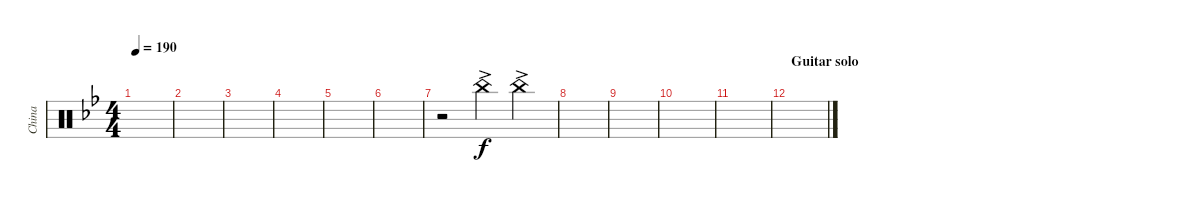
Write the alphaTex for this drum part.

\track ("China" "China") {instrument percussion}
\staff {score}
\articulation defaults
\ts (4 4)
\tempo 190
\clef neutral
\ks bb
|
|
|
|
|
|
r.2 "China (hit)"{ac}.4 "China (hit)"{ac}.4 |
|
|
|
|
\section ("" "Guitar solo")
